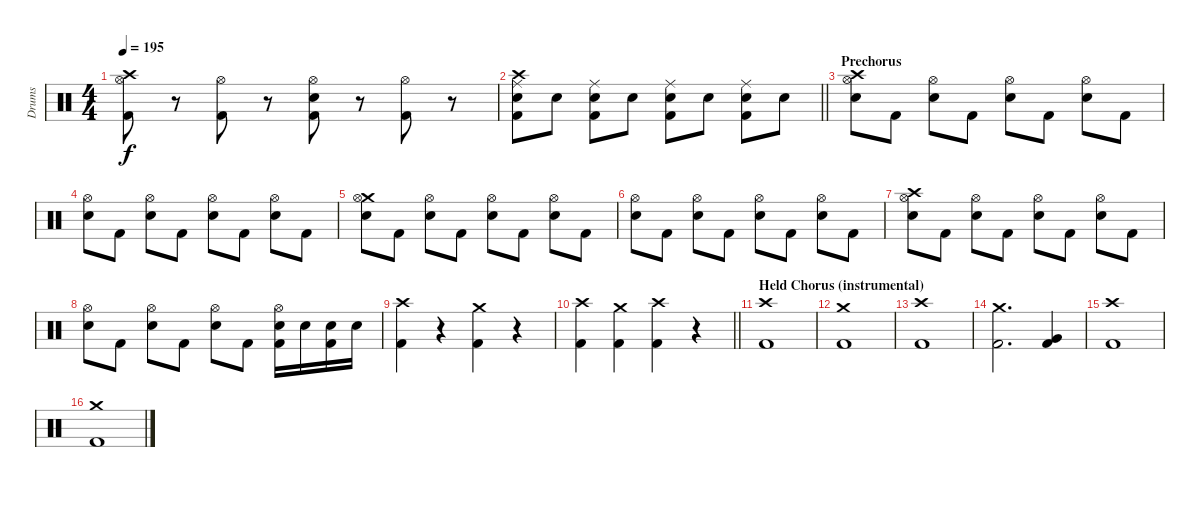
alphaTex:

\track ("Drums" "Drums") {instrument percussion}
\staff {score}
\articulation defaults
\ts (4 4)
\tempo 195
\clef neutral
\ks c
("Crash high (hit)" "Hi-Hat (open)" "Kick (hit) 2").8{dy f} r.8 ("Hi-Hat (open)" "Kick (hit) 2").8 r.8 ("Hi-Hat (open)" "Snare (hit) 2" "Kick (hit) 2").8 r.8 ("Hi-Hat (open)" "Kick (hit) 2").8 r.8 |
\barLineRight lightlight
("Crash high (hit)" "Ride (middle)" "Snare (hit) 2" "Kick (hit) 2").8 "Snare (hit) 2".8 ("Ride (middle)" "Snare (hit) 2" "Kick (hit) 2").8 "Snare (hit) 2".8 ("Ride (middle)" "Snare (hit) 2" "Kick (hit) 2").8 "Snare (hit) 2".8 ("Ride (middle)" "Snare (hit) 2" "Kick (hit) 2").8 "Snare (hit) 2".8 |
\section ("" "Prechorus")
("Crash high (hit)" "Hi-Hat (open)" "Snare (hit) 2").8 "Kick (hit) 2".8 ("Hi-Hat (open)" "Snare (hit) 2").8 "Kick (hit) 2".8 ("Hi-Hat (open)" "Snare (hit) 2").8 "Kick (hit) 2".8 ("Hi-Hat (open)" "Snare (hit) 2").8 "Kick (hit) 2".8 |
("Hi-Hat (open)" "Snare (hit) 2").8 "Kick (hit) 2".8 ("Hi-Hat (open)" "Snare (hit) 2").8 "Kick (hit) 2".8 ("Hi-Hat (open)" "Snare (hit) 2").8 "Kick (hit) 2".8 ("Hi-Hat (open)" "Snare (hit) 2").8 "Kick (hit) 2".8 |
("Crash medium (hit)" "Hi-Hat (open)" "Snare (hit) 2").8 "Kick (hit) 2".8 ("Hi-Hat (open)" "Snare (hit) 2").8 "Kick (hit) 2".8 ("Hi-Hat (open)" "Snare (hit) 2").8 "Kick (hit) 2".8 ("Hi-Hat (open)" "Snare (hit) 2").8 "Kick (hit) 2".8 |
("Hi-Hat (open)" "Snare (hit) 2").8 "Kick (hit) 2".8 ("Hi-Hat (open)" "Snare (hit) 2").8 "Kick (hit) 2".8 ("Hi-Hat (open)" "Snare (hit) 2").8 "Kick (hit) 2".8 ("Hi-Hat (open)" "Snare (hit) 2").8 "Kick (hit) 2".8 |
("Crash high (hit)" "Hi-Hat (open)" "Snare (hit) 2").8 "Kick (hit) 2".8 ("Hi-Hat (open)" "Snare (hit) 2").8 "Kick (hit) 2".8 ("Hi-Hat (open)" "Snare (hit) 2").8 "Kick (hit) 2".8 ("Hi-Hat (open)" "Snare (hit) 2").8 "Kick (hit) 2".8 |
("Hi-Hat (open)" "Snare (hit) 2").8 "Kick (hit) 2".8 ("Hi-Hat (open)" "Snare (hit) 2").8 "Kick (hit) 2".8 ("Hi-Hat (open)" "Snare (hit) 2").8 "Kick (hit) 2".8 ("Hi-Hat (open)" "Snare (hit) 2" "Kick (hit) 2").16 "Snare (hit) 2".16 ("Snare (hit) 2" "Kick (hit) 2").16 "Snare (hit) 2".16 |
("Crash high (hit)" "Kick (hit) 2").4 r.4 ("Crash medium (hit)" "Kick (hit) 2").4 r.4 |
\barLineRight lightlight
("Crash high (hit)" "Kick (hit) 2").4 ("Crash medium (hit)" "Kick (hit) 2").4 ("Crash high (hit)" "Kick (hit) 2").4 r.4 |
\section ("" "Held Chorus (instrumental)")
("Crash high (hit)" "Kick (hit) 2").1 |
("Crash medium (hit)" "Kick (hit) 2").1 |
("Crash high (hit)" "Kick (hit) 2").1 |
("Crash medium (hit)" "Kick (hit) 2").2{d} ("Very Low Tom (hit)" "Kick (hit) 2").4 |
("Crash high (hit)" "Kick (hit) 2").1 |
("Crash medium (hit)" "Kick (hit) 2").1
